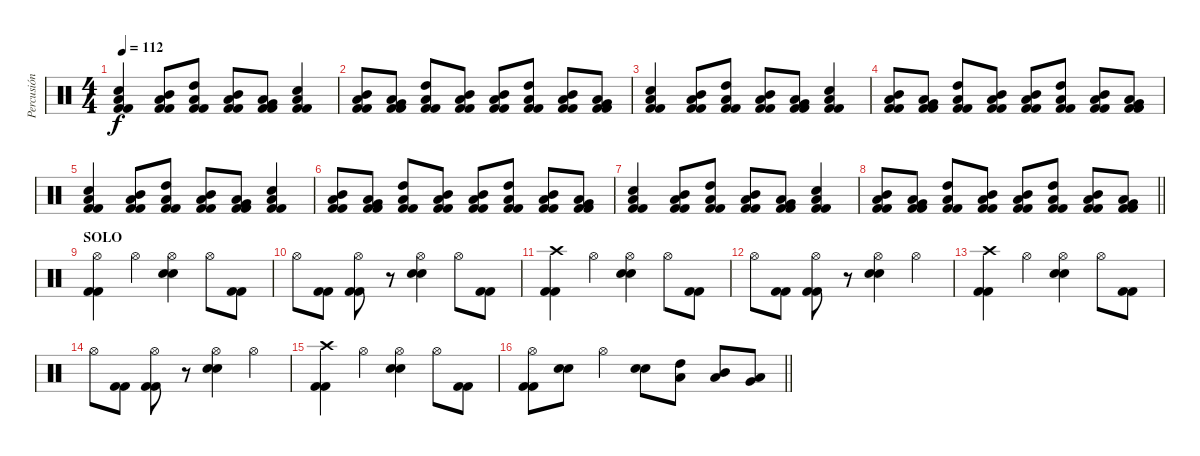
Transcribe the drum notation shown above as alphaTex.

\track ("Percusión" "Percusión") {instrument percussion}
\staff {score}
\articulation defaults
\ts (4 4)
\tempo 112
\clef neutral
\ks c
("Kick (hit) 2" "Electric Snare (hit)" "Low Tom (hit)" "Kick (hit) 2").4{dy f} ("Kick (hit) 2" "Mid Tom (hit)" "Low Tom (hit)" "Kick (hit) 2").8 ("Kick (hit) 2" "High Tom (hit)" "Low Tom (hit)" "Kick (hit) 2").8 ("Kick (hit) 2" "Mid Tom (hit)" "Low Tom (hit)" "Kick (hit) 2").8 ("Kick (hit) 2" "Low Tom (hit)" "Very Low Tom (hit)" "Kick (hit) 2").8 ("Kick (hit) 2" "Electric Snare (hit)" "Low Tom (hit)" "Kick (hit) 2").4 |
("Kick (hit) 2" "Low Tom (hit)" "Mid Tom (hit)" "Kick (hit) 2").8 ("Kick (hit) 2" "Very Low Tom (hit)" "Low Tom (hit)" "Kick (hit) 2").8 ("Kick (hit) 2" "High Tom (hit)" "Low Tom (hit)" "Kick (hit) 2").8 ("Kick (hit) 2" "Low Tom (hit)" "Mid Tom (hit)" "Kick (hit) 2").8 ("Kick (hit) 2" "Low Tom (hit)" "Mid Tom (hit)" "Kick (hit) 2").8 ("Kick (hit) 2" "High Tom (hit)" "Low Tom (hit)" "Kick (hit) 2").8 ("Kick (hit) 2" "Low Tom (hit)" "Mid Tom (hit)" "Kick (hit) 2").8 ("Kick (hit) 2" "Very Low Tom (hit)" "Low Tom (hit)" "Kick (hit) 2").8 |
("Kick (hit) 2" "Electric Snare (hit)" "Low Tom (hit)" "Kick (hit) 2").4 ("Kick (hit) 2" "Mid Tom (hit)" "Low Tom (hit)" "Kick (hit) 2").8 ("Kick (hit) 2" "High Tom (hit)" "Low Tom (hit)" "Kick (hit) 2").8 ("Kick (hit) 2" "Mid Tom (hit)" "Low Tom (hit)" "Kick (hit) 2").8 ("Kick (hit) 2" "Low Tom (hit)" "Very Low Tom (hit)" "Kick (hit) 2").8 ("Kick (hit) 2" "Electric Snare (hit)" "Low Tom (hit)" "Kick (hit) 2").4 |
("Kick (hit) 2" "Low Tom (hit)" "Mid Tom (hit)" "Kick (hit) 2").8 ("Kick (hit) 2" "Very Low Tom (hit)" "Low Tom (hit)" "Kick (hit) 2").8 ("Kick (hit) 2" "High Tom (hit)" "Low Tom (hit)" "Kick (hit) 2").8 ("Kick (hit) 2" "Low Tom (hit)" "Mid Tom (hit)" "Kick (hit) 2").8 ("Kick (hit) 2" "Low Tom (hit)" "Mid Tom (hit)" "Kick (hit) 2").8 ("Kick (hit) 2" "High Tom (hit)" "Low Tom (hit)" "Kick (hit) 2").8 ("Kick (hit) 2" "Low Tom (hit)" "Mid Tom (hit)" "Kick (hit) 2").8 ("Kick (hit) 2" "Very Low Tom (hit)" "Low Tom (hit)" "Kick (hit) 2").8 |
("Kick (hit) 2" "Electric Snare (hit)" "Low Tom (hit)" "Kick (hit) 2").4 ("Kick (hit) 2" "Mid Tom (hit)" "Low Tom (hit)" "Kick (hit) 2").8 ("Kick (hit) 2" "High Tom (hit)" "Low Tom (hit)" "Kick (hit) 2").8 ("Kick (hit) 2" "Mid Tom (hit)" "Low Tom (hit)" "Kick (hit) 2").8 ("Kick (hit) 2" "Low Tom (hit)" "Very Low Tom (hit)" "Kick (hit) 2").8 ("Kick (hit) 2" "Electric Snare (hit)" "Low Tom (hit)" "Kick (hit) 2").4 |
("Kick (hit) 2" "Low Tom (hit)" "Mid Tom (hit)" "Kick (hit) 2").8 ("Kick (hit) 2" "Very Low Tom (hit)" "Low Tom (hit)" "Kick (hit) 2").8 ("Kick (hit) 2" "High Tom (hit)" "Low Tom (hit)" "Kick (hit) 2").8 ("Kick (hit) 2" "Low Tom (hit)" "Mid Tom (hit)" "Kick (hit) 2").8 ("Kick (hit) 2" "Low Tom (hit)" "Mid Tom (hit)" "Kick (hit) 2").8 ("Kick (hit) 2" "High Tom (hit)" "Low Tom (hit)" "Kick (hit) 2").8 ("Kick (hit) 2" "Low Tom (hit)" "Mid Tom (hit)" "Kick (hit) 2").8 ("Kick (hit) 2" "Very Low Tom (hit)" "Low Tom (hit)" "Kick (hit) 2").8 |
("Kick (hit) 2" "Electric Snare (hit)" "Low Tom (hit)" "Kick (hit) 2").4 ("Kick (hit) 2" "Mid Tom (hit)" "Low Tom (hit)" "Kick (hit) 2").8 ("Kick (hit) 2" "High Tom (hit)" "Low Tom (hit)" "Kick (hit) 2").8 ("Kick (hit) 2" "Mid Tom (hit)" "Low Tom (hit)" "Kick (hit) 2").8 ("Kick (hit) 2" "Low Tom (hit)" "Very Low Tom (hit)" "Kick (hit) 2").8 ("Kick (hit) 2" "Electric Snare (hit)" "Low Tom (hit)" "Kick (hit) 2").4 |
\barLineRight lightlight
("Kick (hit) 2" "Low Tom (hit)" "Mid Tom (hit)" "Kick (hit) 2").8 ("Kick (hit) 2" "Very Low Tom (hit)" "Low Tom (hit)" "Kick (hit) 2").8 ("Kick (hit) 2" "High Tom (hit)" "Low Tom (hit)" "Kick (hit) 2").8 ("Kick (hit) 2" "Low Tom (hit)" "Mid Tom (hit)" "Kick (hit) 2").8 ("Kick (hit) 2" "Low Tom (hit)" "Mid Tom (hit)" "Kick (hit) 2").8 ("Kick (hit) 2" "High Tom (hit)" "Low Tom (hit)" "Kick (hit) 2").8 ("Kick (hit) 2" "Low Tom (hit)" "Mid Tom (hit)" "Kick (hit) 2").8 ("Kick (hit) 2" "Very Low Tom (hit)" "Low Tom (hit)" "Kick (hit) 2").8 |
\section ("" "SOLO")
("Kick (hit) 2" "Hi-Hat (open)" "Kick (hit) 2").4 "Hi-Hat (open)".4 ("Hi-Hat (open)" "Electric Snare (hit)" "Electric Snare (hit)").4 "Hi-Hat (open)".8 ("Kick (hit) 2" "Kick (hit) 2").8 |
"Hi-Hat (open)".8 ("Kick (hit) 2" "Kick (hit) 2").8 ("Kick (hit) 2" "Hi-Hat (open)" "Kick (hit) 2").8 r.8 ("Electric Snare (hit)" "Electric Snare (hit)" "Hi-Hat (open)").4 "Hi-Hat (open)".8 ("Kick (hit) 2" "Kick (hit) 2").8 |
("Kick (hit) 2" "Crash high (hit)" "Kick (hit) 2").4 "Hi-Hat (open)".4 ("Hi-Hat (open)" "Electric Snare (hit)" "Electric Snare (hit)").4 "Hi-Hat (open)".8 ("Kick (hit) 2" "Kick (hit) 2").8 |
"Hi-Hat (open)".8 ("Kick (hit) 2" "Kick (hit) 2").8 ("Kick (hit) 2" "Hi-Hat (open)" "Kick (hit) 2").8 r.8 ("Electric Snare (hit)" "Electric Snare (hit)" "Hi-Hat (open)").4 "Hi-Hat (open)".4 |
("Kick (hit) 2" "Crash high (hit)" "Kick (hit) 2").4 "Hi-Hat (open)".4 ("Hi-Hat (open)" "Electric Snare (hit)" "Electric Snare (hit)").4 "Hi-Hat (open)".8 ("Kick (hit) 2" "Kick (hit) 2").8 |
"Hi-Hat (open)".8 ("Kick (hit) 2" "Kick (hit) 2").8 ("Kick (hit) 2" "Hi-Hat (open)" "Kick (hit) 2").8 r.8 ("Electric Snare (hit)" "Electric Snare (hit)" "Hi-Hat (open)").4 "Hi-Hat (open)".4 |
("Kick (hit) 2" "Crash high (hit)" "Kick (hit) 2").4 "Hi-Hat (open)".4 ("Hi-Hat (open)" "Electric Snare (hit)" "Electric Snare (hit)").4 "Hi-Hat (open)".8 ("Kick (hit) 2" "Kick (hit) 2").8 |
\barLineRight lightlight
("Kick (hit) 2" "Hi-Hat (open)" "Kick (hit) 2").8 ("Electric Snare (hit)" "Electric Snare (hit)").8 "Hi-Hat (open)".4 ("Electric Snare (hit)" "Electric Snare (hit)").8 ("High Tom (hit)" "Low Tom (hit)").8 ("Mid Tom (hit)" "Low Tom (hit)").8 ("Low Tom (hit)" "Very Low Tom (hit)").8
